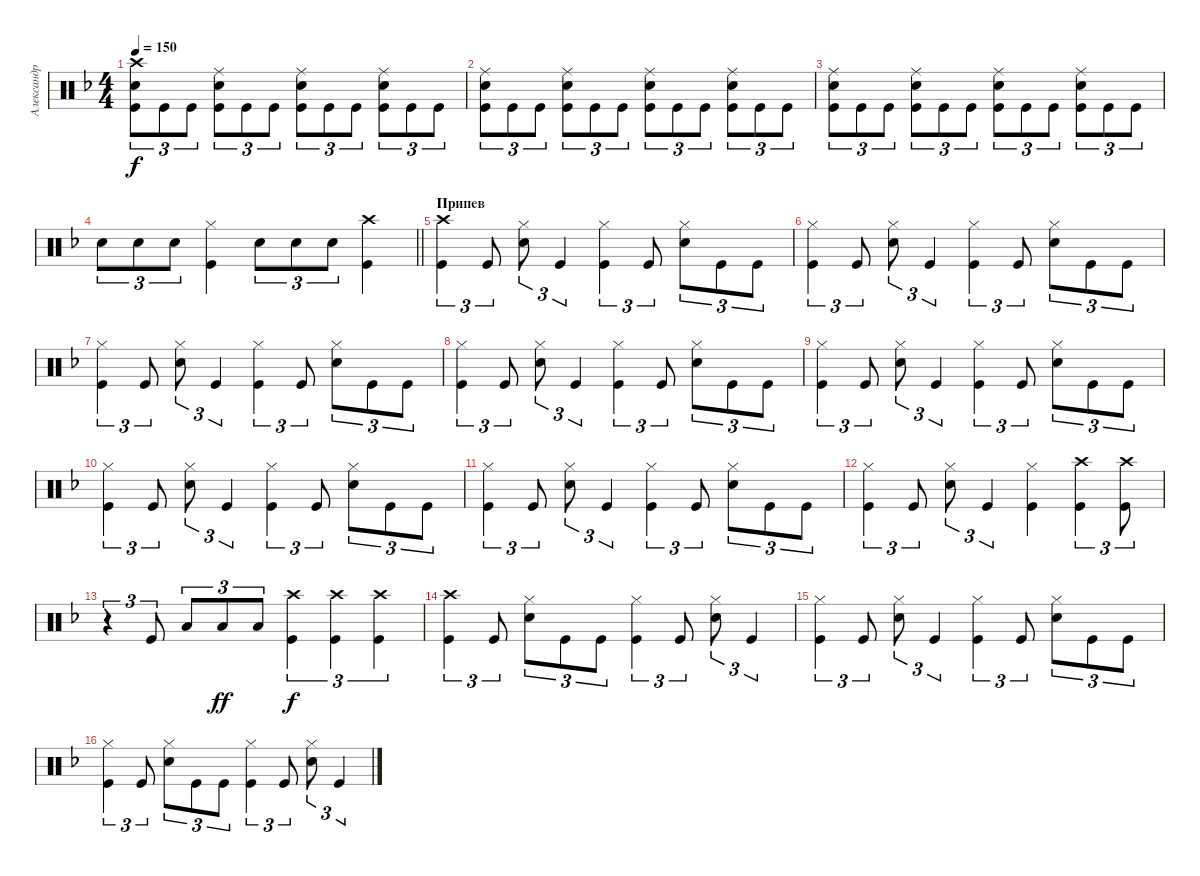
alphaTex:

\track ("Александр Манякин" "Александр ") {instrument percussion}
\staff {score}
\articulation defaults
\ts (4 4)
\tempo 150
\clef neutral
\ks dminor
("Kick (hit)" "Snare (hit) 2" "Crash high (hit)").8{tu (3 2) dy f} "Kick (hit)".8{tu (3 2)} "Kick (hit)".8{tu (3 2)} ("Snare (hit) 2" "Kick (hit)" "Ride (middle)").8{tu (3 2)} "Kick (hit)".8{tu (3 2)} "Kick (hit)".8{tu (3 2)} ("Kick (hit)" "Ride (middle)" "Snare (hit) 2").8{tu (3 2)} "Kick (hit)".8{tu (3 2)} "Kick (hit)".8{tu (3 2)} ("Kick (hit)" "Snare (hit) 2" "Ride (middle)").8{tu (3 2)} "Kick (hit)".8{tu (3 2)} "Kick (hit)".8{tu (3 2)} |
("Kick (hit)" "Ride (middle)" "Snare (hit) 2").8{tu (3 2)} "Kick (hit)".8{tu (3 2)} "Kick (hit)".8{tu (3 2)} ("Snare (hit) 2" "Kick (hit)" "Ride (middle)").8{tu (3 2)} "Kick (hit)".8{tu (3 2)} "Kick (hit)".8{tu (3 2)} ("Kick (hit)" "Ride (middle)" "Snare (hit) 2").8{tu (3 2)} "Kick (hit)".8{tu (3 2)} "Kick (hit)".8{tu (3 2)} ("Kick (hit)" "Snare (hit) 2" "Ride (middle)").8{tu (3 2)} "Kick (hit)".8{tu (3 2)} "Kick (hit)".8{tu (3 2)} |
("Kick (hit)" "Ride (middle)" "Snare (hit) 2").8{tu (3 2)} "Kick (hit)".8{tu (3 2)} "Kick (hit)".8{tu (3 2)} ("Snare (hit) 2" "Kick (hit)" "Ride (middle)").8{tu (3 2)} "Kick (hit)".8{tu (3 2)} "Kick (hit)".8{tu (3 2)} ("Kick (hit)" "Ride (middle)" "Snare (hit) 2").8{tu (3 2)} "Kick (hit)".8{tu (3 2)} "Kick (hit)".8{tu (3 2)} ("Kick (hit)" "Snare (hit) 2" "Ride (middle)").8{tu (3 2)} "Kick (hit)".8{tu (3 2)} "Kick (hit)".8{tu (3 2)} |
\barLineRight lightlight "Snare (hit) 2".8{tu (3 2)} "Snare (hit) 2".8{tu (3 2)} "Snare (hit) 2".8{tu (3 2)}
("Kick (hit)" "Hi-Hat (closed)").4 "Snare (hit) 2".8{tu (3 2)} "Snare (hit) 2".8{tu (3 2)} "Snare (hit) 2".8{tu (3 2)} ("Kick (hit)" "Crash high (hit)").4 |
\section ("" "Припев")
("Kick (hit)" "Crash high (hit)").4{tu (3 2)} "Kick (hit)".8{tu (3 2)} ("Snare (hit) 2" "Hi-Hat (closed)").8{tu (3 2)} "Kick (hit)".4{tu (3 2)} ("Kick (hit)" "Hi-Hat (closed)").4{tu (3 2)} "Kick (hit)".8{tu (3 2)} ("Snare (hit) 2" "Hi-Hat (closed)").8{tu (3 2)} "Kick (hit)".8{tu (3 2)} "Kick (hit)".8{tu (3 2)} |
("Kick (hit)" "Hi-Hat (closed)").4{tu (3 2)} "Kick (hit)".8{tu (3 2)} ("Snare (hit) 2" "Hi-Hat (closed)").8{tu (3 2)} "Kick (hit)".4{tu (3 2)} ("Kick (hit)" "Hi-Hat (closed)").4{tu (3 2)} "Kick (hit)".8{tu (3 2)} ("Snare (hit) 2" "Hi-Hat (closed)").8{tu (3 2)} "Kick (hit)".8{tu (3 2)} "Kick (hit)".8{tu (3 2)} |
("Kick (hit)" "Hi-Hat (closed)").4{tu (3 2)} "Kick (hit)".8{tu (3 2)} ("Snare (hit) 2" "Hi-Hat (closed)").8{tu (3 2)} "Kick (hit)".4{tu (3 2)} ("Kick (hit)" "Hi-Hat (closed)").4{tu (3 2)} "Kick (hit)".8{tu (3 2)} ("Snare (hit) 2" "Hi-Hat (closed)").8{tu (3 2)} "Kick (hit)".8{tu (3 2)} "Kick (hit)".8{tu (3 2)} |
("Kick (hit)" "Hi-Hat (closed)").4{tu (3 2)} "Kick (hit)".8{tu (3 2)} ("Snare (hit) 2" "Hi-Hat (closed)").8{tu (3 2)} "Kick (hit)".4{tu (3 2)} ("Kick (hit)" "Hi-Hat (closed)").4{tu (3 2)} "Kick (hit)".8{tu (3 2)} ("Snare (hit) 2" "Hi-Hat (closed)").8{tu (3 2)} "Kick (hit)".8{tu (3 2)} "Kick (hit)".8{tu (3 2)} |
("Kick (hit)" "Hi-Hat (closed)").4{tu (3 2)} "Kick (hit)".8{tu (3 2)} ("Snare (hit) 2" "Hi-Hat (closed)").8{tu (3 2)} "Kick (hit)".4{tu (3 2)} ("Kick (hit)" "Hi-Hat (closed)").4{tu (3 2)} "Kick (hit)".8{tu (3 2)} ("Snare (hit) 2" "Hi-Hat (closed)").8{tu (3 2)} "Kick (hit)".8{tu (3 2)} "Kick (hit)".8{tu (3 2)} |
("Kick (hit)" "Hi-Hat (closed)").4{tu (3 2)} "Kick (hit)".8{tu (3 2)} ("Snare (hit) 2" "Hi-Hat (closed)").8{tu (3 2)} "Kick (hit)".4{tu (3 2)} ("Kick (hit)" "Hi-Hat (closed)").4{tu (3 2)} "Kick (hit)".8{tu (3 2)} ("Snare (hit) 2" "Hi-Hat (closed)").8{tu (3 2)} "Kick (hit)".8{tu (3 2)} "Kick (hit)".8{tu (3 2)} |
("Kick (hit)" "Hi-Hat (closed)").4{tu (3 2)} "Kick (hit)".8{tu (3 2)} ("Snare (hit) 2" "Hi-Hat (closed)").8{tu (3 2)} "Kick (hit)".4{tu (3 2)} ("Kick (hit)" "Hi-Hat (closed)").4{tu (3 2)} "Kick (hit)".8{tu (3 2)} ("Snare (hit) 2" "Hi-Hat (closed)").8{tu (3 2)} "Kick (hit)".8{tu (3 2)} "Kick (hit)".8{tu (3 2)} |
("Kick (hit)" "Hi-Hat (closed)").4{tu (3 2)} "Kick (hit)".8{tu (3 2)} ("Snare (hit) 2" "Hi-Hat (closed)").8{tu (3 2)} "Kick (hit)".4{tu (3 2)} ("Kick (hit)" "Hi-Hat (closed)").4 ("Kick (hit)" "Crash high (hit)").4{tu (3 2)} ("Kick (hit)" "Crash high (hit)").8{tu (3 2)} |
r.4{tu (3 2)} "Kick (hit)".8{tu (3 2)} "Low Tom (hit)".8{tu (3 2)} "Low Tom (hit)".8{tu (3 2) dy ff} "Low Tom (hit)".8{tu (3 2)} ("Kick (hit)" "Crash high (hit)").4{tu (3 2) dy f} ("Kick (hit)" "Crash high (hit)").4{tu (3 2)} ("Kick (hit)" "Crash high (hit)").4{tu (3 2)} |
("Kick (hit)" "Crash high (hit)").4{tu (3 2)} "Kick (hit)".8{tu (3 2)} ("Snare (hit) 2" "Hi-Hat (closed)").8{tu (3 2)} "Kick (hit)".8{tu (3 2)} "Kick (hit)".8{tu (3 2)} ("Kick (hit)" "Hi-Hat (closed)").4{tu (3 2)} "Kick (hit)".8{tu (3 2)} ("Snare (hit) 2" "Hi-Hat (closed)").8{tu (3 2)} "Kick (hit)".4{tu (3 2)} |
("Kick (hit)" "Hi-Hat (closed)").4{tu (3 2)} "Kick (hit)".8{tu (3 2)} ("Snare (hit) 2" "Hi-Hat (closed)").8{tu (3 2)} "Kick (hit)".4{tu (3 2)} ("Kick (hit)" "Hi-Hat (closed)").4{tu (3 2)} "Kick (hit)".8{tu (3 2)} ("Snare (hit) 2" "Hi-Hat (closed)").8{tu (3 2)} "Kick (hit)".8{tu (3 2)} "Kick (hit)".8{tu (3 2)} |
("Kick (hit)" "Hi-Hat (closed)").4{tu (3 2)} "Kick (hit)".8{tu (3 2)} ("Snare (hit) 2" "Hi-Hat (closed)").8{tu (3 2)} "Kick (hit)".8{tu (3 2)} "Kick (hit)".8{tu (3 2)} ("Kick (hit)" "Hi-Hat (closed)").4{tu (3 2)} "Kick (hit)".8{tu (3 2)} ("Snare (hit) 2" "Hi-Hat (closed)").8{tu (3 2)} "Kick (hit)".4{tu (3 2)}
